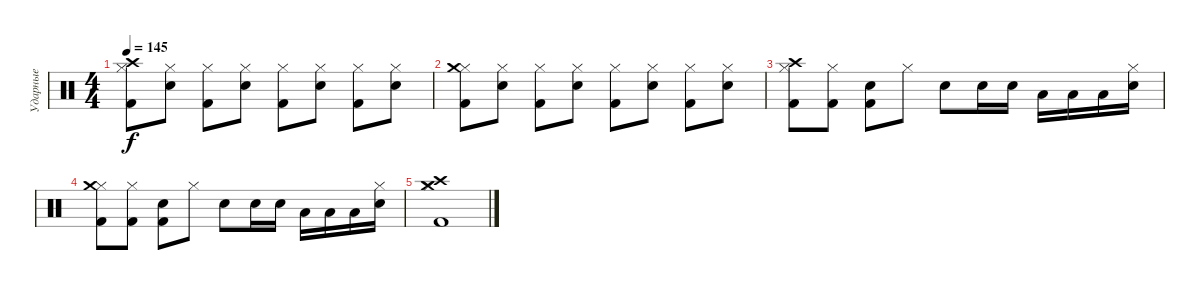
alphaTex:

\track ("Ударные" "Ударные") {instrument percussion}
\staff {score}
\articulation defaults
\ts (4 4)
\tempo 145
\clef neutral
\ks c
("Kick (hit) 2" "Hi-Hat (closed)" "Crash high (hit)").8{dy f} ("Snare (hit) 2" "Hi-Hat (closed)").8 ("Kick (hit) 2" "Hi-Hat (closed)").8 ("Snare (hit) 2" "Hi-Hat (closed)").8 ("Kick (hit) 2" "Hi-Hat (closed)").8 ("Snare (hit) 2" "Hi-Hat (closed)").8 ("Kick (hit) 2" "Hi-Hat (closed)").8 ("Snare (hit) 2" "Hi-Hat (closed)").8 |
("Kick (hit) 2" "Hi-Hat (closed)" "Crash medium (hit)").8 ("Snare (hit) 2" "Hi-Hat (closed)").8 ("Kick (hit) 2" "Hi-Hat (closed)").8 ("Snare (hit) 2" "Hi-Hat (closed)").8 ("Kick (hit) 2" "Hi-Hat (closed)").8 ("Snare (hit) 2" "Hi-Hat (closed)").8 ("Kick (hit) 2" "Hi-Hat (closed)").8 ("Snare (hit) 2" "Hi-Hat (closed)").8 |
("Hi-Hat (closed)" "Kick (hit) 2" "Crash high (hit)").8 ("Hi-Hat (closed)" "Kick (hit) 2").8 ("Kick (hit) 2" "Snare (hit) 2").8 "Hi-Hat (closed)".8 "Electric Snare (hit)".8 "Electric Snare (hit)".16 "Electric Snare (hit)".16 "Low Tom (hit)".16 "Low Tom (hit)".16 "Low Tom (hit)".16 ("Hi-Hat (closed)" "Snare (hit) 2").16 |
("Hi-Hat (closed)" "Kick (hit) 2" "Crash medium (hit)").8 ("Hi-Hat (closed)" "Kick (hit) 2").8 ("Kick (hit) 2" "Snare (hit) 2").8 "Hi-Hat (closed)".8 "Electric Snare (hit)".8 "Electric Snare (hit)".16 "Electric Snare (hit)".16 "Low Tom (hit)".16 "Low Tom (hit)".16 "Low Tom (hit)".16 ("Hi-Hat (closed)" "Snare (hit) 2").16 |
("Crash medium (hit)" "Kick (hit) 2" "Hi-Hat (closed)" "Crash high (hit)").1
